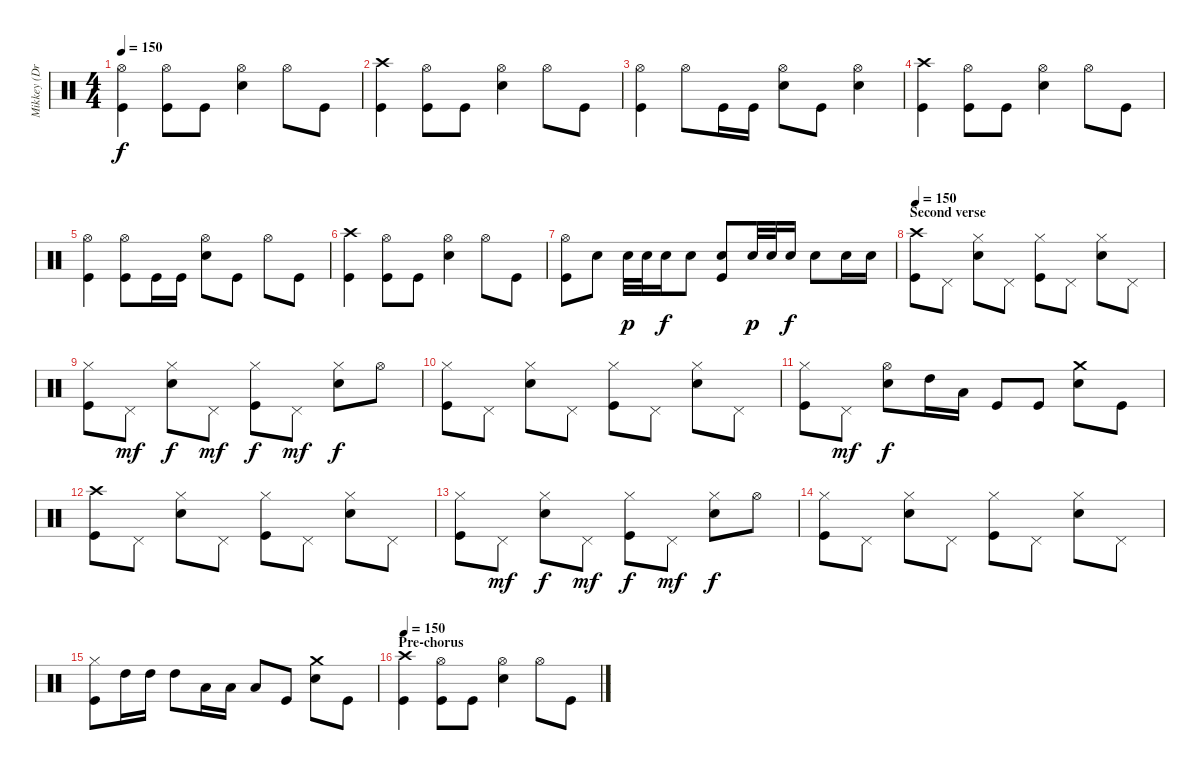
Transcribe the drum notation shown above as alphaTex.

\track ("Mikkey (Drums)" "Mikkey (Dr") {instrument percussion}
\staff {score}
\articulation defaults
\ts (4 4)
\tempo 150
\clef neutral
\ks c
("Hi-Hat (open)" "Kick (hit)").4{dy f} ("Hi-Hat (open)" "Kick (hit)").8 "Kick (hit)".8 ("Hi-Hat (open)" "Electric Snare (hit)").4 "Hi-Hat (open)".8 "Kick (hit)".8 |
("Crash high (hit)" "Kick (hit)").4 ("Hi-Hat (open)" "Kick (hit)").8 "Kick (hit)".8 ("Hi-Hat (open)" "Electric Snare (hit)").4 "Hi-Hat (open)".8 "Kick (hit)".8 |
("Hi-Hat (open)" "Kick (hit)").4 "Hi-Hat (open)".8 "Kick (hit)".16 "Kick (hit)".16 ("Hi-Hat (open)" "Electric Snare (hit)").8 "Kick (hit)".8 ("Hi-Hat (open)" "Electric Snare (hit)").4 |
("Crash high (hit)" "Kick (hit)").4 ("Hi-Hat (open)" "Kick (hit)").8 "Kick (hit)".8 ("Hi-Hat (open)" "Electric Snare (hit)").4 "Hi-Hat (open)".8 "Kick (hit)".8 |
("Hi-Hat (open)" "Kick (hit)").4 ("Hi-Hat (open)" "Kick (hit)").8 "Kick (hit)".16 "Kick (hit)".16 ("Hi-Hat (open)" "Electric Snare (hit)").8 "Kick (hit)".8 "Hi-Hat (open)".8 "Kick (hit)".8 |
("Crash high (hit)" "Kick (hit)").4 ("Hi-Hat (open)" "Kick (hit)").8 "Kick (hit)".8 ("Hi-Hat (open)" "Electric Snare (hit)").4 "Hi-Hat (open)".8 "Kick (hit)".8 |
("Hi-Hat (open)" "Kick (hit)").8 "Electric Snare (hit)".8 "Electric Snare (hit)".32{dy p} "Electric Snare (hit)".32 "Electric Snare (hit)".16{dy f} "Electric Snare (hit)".8 ("Electric Snare (hit)" "Kick (hit)").8 "Electric Snare (hit)".32{dy p} "Electric Snare (hit)".32 "Electric Snare (hit)".16{dy f} "Electric Snare (hit)".8 "Electric Snare (hit)".16 "Electric Snare (hit)".16 |
\section ("" "Second verse")
\tempo 150
("Crash high (hit)" "Kick (hit)").8 "Pedal Hi-Hat (hit)".8 ("Hi-Hat (closed)" "Electric Snare (hit)").8 "Pedal Hi-Hat (hit)".8 ("Hi-Hat (closed)" "Kick (hit)").8 "Pedal Hi-Hat (hit)".8 ("Hi-Hat (closed)" "Electric Snare (hit)").8 "Pedal Hi-Hat (hit)".8 |
("Hi-Hat (closed)" "Kick (hit)").8 "Pedal Hi-Hat (hit)".8{dy mf} ("Hi-Hat (closed)" "Electric Snare (hit)").8{dy f} "Pedal Hi-Hat (hit)".8{dy mf} ("Hi-Hat (closed)" "Kick (hit)").8{dy f} "Pedal Hi-Hat (hit)".8{dy mf} ("Hi-Hat (closed)" "Electric Snare (hit)").8{dy f} "Hi-Hat (open)".8 |
("Hi-Hat (closed)" "Kick (hit)").8 "Pedal Hi-Hat (hit)".8 ("Hi-Hat (closed)" "Electric Snare (hit)").8 "Pedal Hi-Hat (hit)".8 ("Hi-Hat (closed)" "Kick (hit)").8 "Pedal Hi-Hat (hit)".8 ("Hi-Hat (closed)" "Electric Snare (hit)").8 "Pedal Hi-Hat (hit)".8 |
("Hi-Hat (closed)" "Kick (hit)").8 "Pedal Hi-Hat (hit)".8{dy mf} ("Hi-Hat (open)" "Electric Snare (hit)").8{dy f} "High Tom (hit)".16 "Low Tom (hit)".16 "Kick (hit)".8 "Kick (hit)".8 ("Crash medium (hit)" "Electric Snare (hit)").8 "Kick (hit)".8 |
("Crash high (hit)" "Kick (hit)").8 "Pedal Hi-Hat (hit)".8 ("Hi-Hat (closed)" "Electric Snare (hit)").8 "Pedal Hi-Hat (hit)".8 ("Hi-Hat (closed)" "Kick (hit)").8 "Pedal Hi-Hat (hit)".8 ("Hi-Hat (closed)" "Electric Snare (hit)").8 "Pedal Hi-Hat (hit)".8 |
("Hi-Hat (closed)" "Kick (hit)").8 "Pedal Hi-Hat (hit)".8{dy mf} ("Hi-Hat (closed)" "Electric Snare (hit)").8{dy f} "Pedal Hi-Hat (hit)".8{dy mf} ("Hi-Hat (closed)" "Kick (hit)").8{dy f} "Pedal Hi-Hat (hit)".8{dy mf} ("Hi-Hat (closed)" "Electric Snare (hit)").8{dy f} "Hi-Hat (open)".8 |
("Hi-Hat (closed)" "Kick (hit)").8 "Pedal Hi-Hat (hit)".8 ("Hi-Hat (closed)" "Electric Snare (hit)").8 "Pedal Hi-Hat (hit)".8 ("Hi-Hat (closed)" "Kick (hit)").8 "Pedal Hi-Hat (hit)".8 ("Hi-Hat (closed)" "Electric Snare (hit)").8 "Pedal Hi-Hat (hit)".8 |
("Hi-Hat (closed)" "Kick (hit)").8 "High Tom (hit)".16 "High Tom (hit)".16 "High Tom (hit)".8 "Low Tom (hit)".16 "Low Tom (hit)".16 "Low Tom (hit)".8 "Kick (hit)".8 ("Crash medium (hit)" "Electric Snare (hit)").8 "Kick (hit)".8 |
\section ("" "Pre-chorus")
\tempo 150
("Crash high (hit)" "Kick (hit)").4 ("Hi-Hat (open)" "Kick (hit)").8 "Kick (hit)".8 ("Hi-Hat (open)" "Electric Snare (hit)").4 "Hi-Hat (open)".8 "Kick (hit)".8
